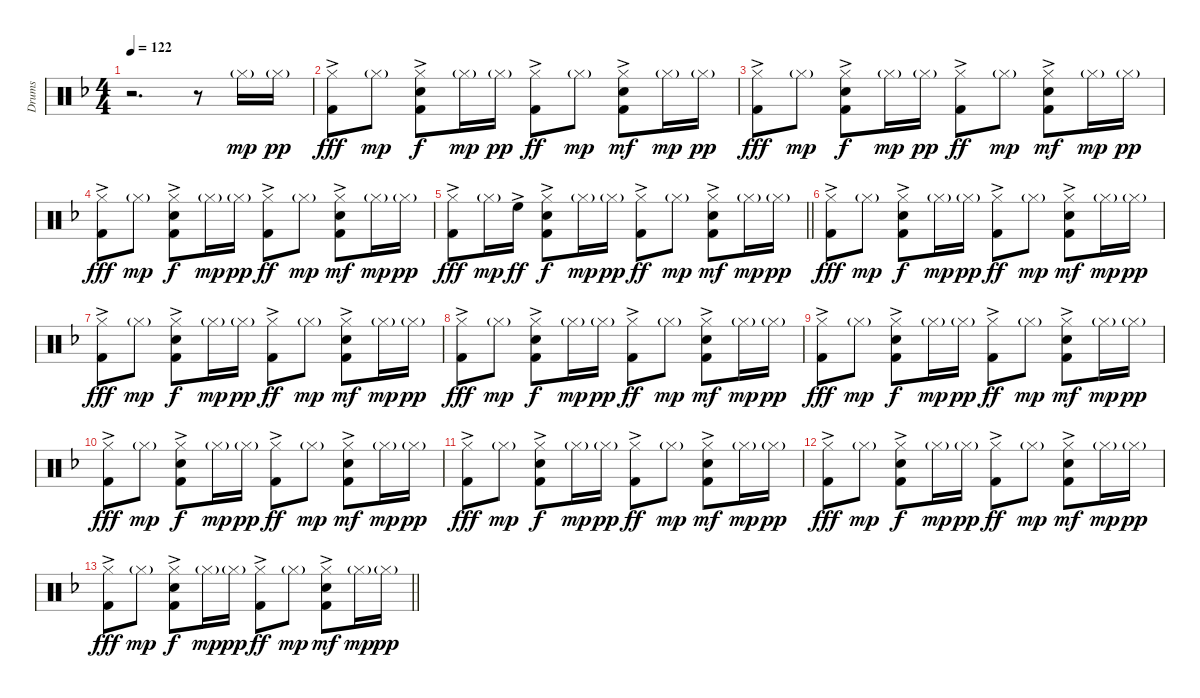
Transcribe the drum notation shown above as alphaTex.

\track ("Drums" "Drums") {instrument percussion}
\staff {score}
\articulation defaults
\ts (4 4)
\tempo 122
\clef neutral
\ks f
r.2{d dy pp} r.8 "Hi-Hat (closed)"{g}.16{dy mp} "Hi-Hat (closed)"{g}.16{dy pp} |
("Kick (hit) 2"{ac} "Hi-Hat (closed)").8{dy fff} "Hi-Hat (closed)"{g}.8{dy mp} ("Kick (hit) 2" "Snare (hit) 2"{ac} "Hi-Hat (closed)").8{dy f} "Hi-Hat (closed)"{g}.16{dy mp} "Hi-Hat (closed)"{g}.16{dy pp} ("Kick (hit) 2"{ac} "Hi-Hat (closed)").8{dy ff} "Hi-Hat (closed)"{g}.8{dy mp} ("Kick (hit) 2" "Snare (hit) 2"{ac} "Hi-Hat (closed)").8{dy mf} "Hi-Hat (closed)"{g}.16{dy mp} "Hi-Hat (closed)"{g}.16{dy pp} |
("Kick (hit) 2"{ac} "Hi-Hat (closed)").8{dy fff} "Hi-Hat (closed)"{g}.8{dy mp} ("Kick (hit) 2" "Snare (hit) 2"{ac} "Hi-Hat (closed)").8{dy f} "Hi-Hat (closed)"{g}.16{dy mp} "Hi-Hat (closed)"{g}.16{dy pp} ("Kick (hit) 2"{ac} "Hi-Hat (closed)").8{dy ff} "Hi-Hat (closed)"{g}.8{dy mp} ("Kick (hit) 2" "Snare (hit) 2"{ac} "Hi-Hat (closed)").8{dy mf} "Hi-Hat (closed)"{g}.16{dy mp} "Hi-Hat (closed)"{g}.16{dy pp} |
("Kick (hit) 2"{ac} "Hi-Hat (closed)").8{dy fff} "Hi-Hat (closed)"{g}.8{dy mp} ("Kick (hit) 2" "Snare (hit) 2"{ac} "Hi-Hat (closed)").8{dy f} "Hi-Hat (closed)"{g}.16{dy mp} "Hi-Hat (closed)"{g}.16{dy pp} ("Kick (hit) 2"{ac} "Hi-Hat (closed)").8{dy ff} "Hi-Hat (closed)"{g}.8{dy mp} ("Kick (hit) 2" "Snare (hit) 2"{ac} "Hi-Hat (closed)").8{dy mf} "Hi-Hat (closed)"{g}.16{dy mp} "Hi-Hat (closed)"{g}.16{dy pp} |
\barLineRight lightlight
("Kick (hit) 2"{ac} "Hi-Hat (closed)").8{dy fff} "Hi-Hat (closed)"{g}.16{dy mp} "High Floor Tom (hit)"{ac}.16{dy ff} ("Kick (hit) 2" "Snare (hit) 2"{ac} "Hi-Hat (closed)").8{dy f} "Hi-Hat (closed)"{g}.16{dy mp} "Hi-Hat (closed)"{g}.16{dy pp} ("Kick (hit) 2"{ac} "Hi-Hat (closed)").8{dy ff} "Hi-Hat (closed)"{g}.8{dy mp} ("Kick (hit) 2" "Snare (hit) 2"{ac} "Hi-Hat (closed)").8{dy mf} "Hi-Hat (closed)"{g}.16{dy mp} "Hi-Hat (closed)"{g}.16{dy pp} |
("Kick (hit) 2"{ac} "Hi-Hat (closed)").8{dy fff} "Hi-Hat (closed)"{g}.8{dy mp} ("Kick (hit) 2" "Snare (hit) 2"{ac} "Hi-Hat (closed)").8{dy f} "Hi-Hat (closed)"{g}.16{dy mp} "Hi-Hat (closed)"{g}.16{dy pp} ("Kick (hit) 2"{ac} "Hi-Hat (closed)").8{dy ff} "Hi-Hat (closed)"{g}.8{dy mp} ("Kick (hit) 2" "Snare (hit) 2"{ac} "Hi-Hat (closed)").8{dy mf} "Hi-Hat (closed)"{g}.16{dy mp} "Hi-Hat (closed)"{g}.16{dy pp} |
("Kick (hit) 2"{ac} "Hi-Hat (closed)").8{dy fff} "Hi-Hat (closed)"{g}.8{dy mp} ("Kick (hit) 2" "Snare (hit) 2"{ac} "Hi-Hat (closed)").8{dy f} "Hi-Hat (closed)"{g}.16{dy mp} "Hi-Hat (closed)"{g}.16{dy pp} ("Kick (hit) 2"{ac} "Hi-Hat (closed)").8{dy ff} "Hi-Hat (closed)"{g}.8{dy mp} ("Kick (hit) 2" "Snare (hit) 2"{ac} "Hi-Hat (closed)").8{dy mf} "Hi-Hat (closed)"{g}.16{dy mp} "Hi-Hat (closed)"{g}.16{dy pp} |
("Kick (hit) 2"{ac} "Hi-Hat (closed)").8{dy fff} "Hi-Hat (closed)"{g}.8{dy mp} ("Kick (hit) 2" "Snare (hit) 2"{ac} "Hi-Hat (closed)").8{dy f} "Hi-Hat (closed)"{g}.16{dy mp} "Hi-Hat (closed)"{g}.16{dy pp} ("Kick (hit) 2"{ac} "Hi-Hat (closed)").8{dy ff} "Hi-Hat (closed)"{g}.8{dy mp} ("Kick (hit) 2" "Snare (hit) 2"{ac} "Hi-Hat (closed)").8{dy mf} "Hi-Hat (closed)"{g}.16{dy mp} "Hi-Hat (closed)"{g}.16{dy pp} |
("Kick (hit) 2"{ac} "Hi-Hat (closed)").8{dy fff} "Hi-Hat (closed)"{g}.8{dy mp} ("Kick (hit) 2" "Snare (hit) 2"{ac} "Hi-Hat (closed)").8{dy f} "Hi-Hat (closed)"{g}.16{dy mp} "Hi-Hat (closed)"{g}.16{dy pp} ("Kick (hit) 2"{ac} "Hi-Hat (closed)").8{dy ff} "Hi-Hat (closed)"{g}.8{dy mp} ("Kick (hit) 2" "Snare (hit) 2"{ac} "Hi-Hat (closed)").8{dy mf} "Hi-Hat (closed)"{g}.16{dy mp} "Hi-Hat (closed)"{g}.16{dy pp} |
("Kick (hit) 2"{ac} "Hi-Hat (closed)").8{dy fff} "Hi-Hat (closed)"{g}.8{dy mp} ("Kick (hit) 2" "Snare (hit) 2"{ac} "Hi-Hat (closed)").8{dy f} "Hi-Hat (closed)"{g}.16{dy mp} "Hi-Hat (closed)"{g}.16{dy pp} ("Kick (hit) 2"{ac} "Hi-Hat (closed)").8{dy ff} "Hi-Hat (closed)"{g}.8{dy mp} ("Kick (hit) 2" "Snare (hit) 2"{ac} "Hi-Hat (closed)").8{dy mf} "Hi-Hat (closed)"{g}.16{dy mp} "Hi-Hat (closed)"{g}.16{dy pp} |
("Kick (hit) 2"{ac} "Hi-Hat (closed)").8{dy fff} "Hi-Hat (closed)"{g}.8{dy mp} ("Kick (hit) 2" "Snare (hit) 2"{ac} "Hi-Hat (closed)").8{dy f} "Hi-Hat (closed)"{g}.16{dy mp} "Hi-Hat (closed)"{g}.16{dy pp} ("Kick (hit) 2"{ac} "Hi-Hat (closed)").8{dy ff} "Hi-Hat (closed)"{g}.8{dy mp} ("Kick (hit) 2" "Snare (hit) 2"{ac} "Hi-Hat (closed)").8{dy mf} "Hi-Hat (closed)"{g}.16{dy mp} "Hi-Hat (closed)"{g}.16{dy pp} |
("Kick (hit) 2"{ac} "Hi-Hat (closed)").8{dy fff} "Hi-Hat (closed)"{g}.8{dy mp} ("Kick (hit) 2" "Snare (hit) 2"{ac} "Hi-Hat (closed)").8{dy f} "Hi-Hat (closed)"{g}.16{dy mp} "Hi-Hat (closed)"{g}.16{dy pp} ("Kick (hit) 2"{ac} "Hi-Hat (closed)").8{dy ff} "Hi-Hat (closed)"{g}.8{dy mp} ("Kick (hit) 2" "Snare (hit) 2"{ac} "Hi-Hat (closed)").8{dy mf} "Hi-Hat (closed)"{g}.16{dy mp} "Hi-Hat (closed)"{g}.16{dy pp} |
\barLineRight lightlight
("Kick (hit) 2"{ac} "Hi-Hat (closed)").8{dy fff} "Hi-Hat (closed)"{g}.8{dy mp} ("Kick (hit) 2" "Snare (hit) 2"{ac} "Hi-Hat (closed)").8{dy f} "Hi-Hat (closed)"{g}.16{dy mp} "Hi-Hat (closed)"{g}.16{dy pp} ("Kick (hit) 2"{ac} "Hi-Hat (closed)").8{dy ff} "Hi-Hat (closed)"{g}.8{dy mp} ("Kick (hit) 2" "Snare (hit) 2"{ac} "Hi-Hat (closed)").8{dy mf} "Hi-Hat (closed)"{g}.16{dy mp} "Hi-Hat (closed)"{g}.16{dy pp}
